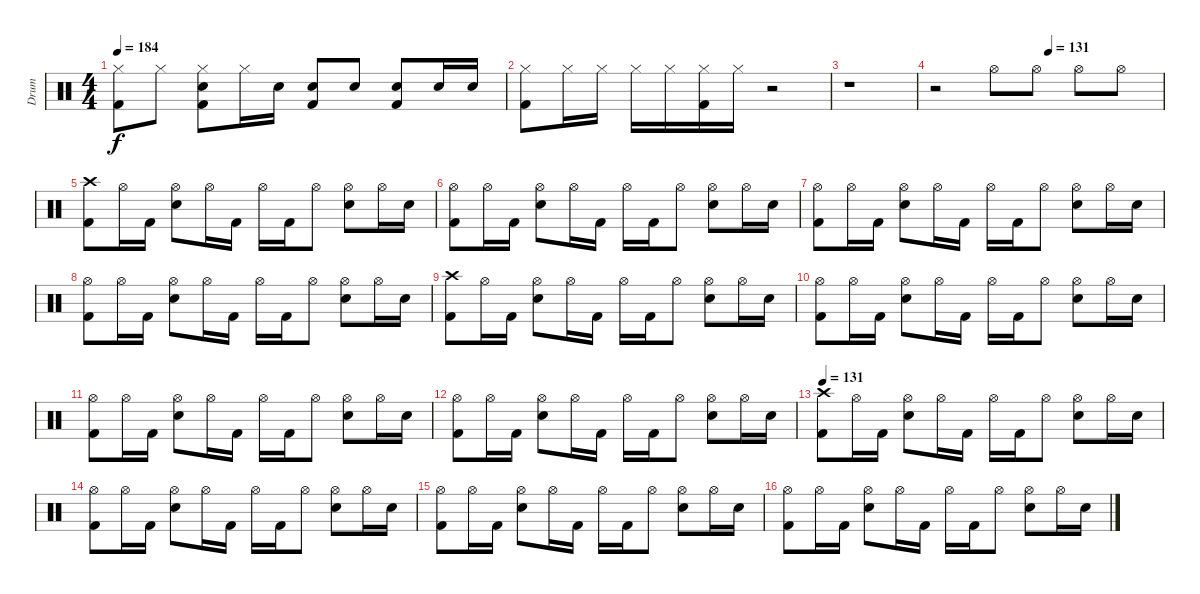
\track ("Drum" "Drum") {instrument percussion}
\staff {score}
\articulation defaults
\ts (4 4)
\tempo 184
\clef neutral
\ks c
("Hi-Hat (closed)" "Kick (hit) 2").8{dy f} "Hi-Hat (closed)".8 ("Hi-Hat (closed)" "Electric Snare (hit)" "Kick (hit) 2").8 "Hi-Hat (closed)".16 "Electric Snare (hit)".16 ("Electric Snare (hit)" "Kick (hit) 2").8 "Electric Snare (hit)".8 ("Electric Snare (hit)" "Kick (hit) 2").8 "Electric Snare (hit)".16 "Electric Snare (hit)".16 |
("Hi-Hat (closed)" "Kick (hit) 2").8 "Hi-Hat (closed)".16 "Hi-Hat (closed)".16 "Hi-Hat (closed)".16 "Hi-Hat (closed)".16 ("Hi-Hat (closed)" "Kick (hit) 2").16 "Hi-Hat (closed)".16 r.2 |
r.1 |
\tempo (131 0.5)
r.2 "Hi-Hat (open)".8 "Hi-Hat (open)".8 "Hi-Hat (open)".8 "Hi-Hat (open)".8 |
("Crash high (hit)" "Kick (hit) 2").8 "Hi-Hat (open)".16 "Kick (hit) 2".16 ("Hi-Hat (open)" "Snare (hit) 2").8 "Hi-Hat (open)".16 "Kick (hit) 2".16 "Hi-Hat (open)".16 "Kick (hit) 2".16 "Hi-Hat (open)".8 ("Hi-Hat (open)" "Snare (hit) 2").8 "Hi-Hat (open)".16 "Snare (hit) 2".16 |
("Hi-Hat (open)" "Kick (hit) 2").8 "Hi-Hat (open)".16 "Kick (hit) 2".16 ("Hi-Hat (open)" "Snare (hit) 2").8 "Hi-Hat (open)".16 "Kick (hit) 2".16 "Hi-Hat (open)".16 "Kick (hit) 2".16 "Hi-Hat (open)".8 ("Hi-Hat (open)" "Snare (hit) 2").8 "Hi-Hat (open)".16 "Snare (hit) 2".16 |
("Hi-Hat (open)" "Kick (hit) 2").8 "Hi-Hat (open)".16 "Kick (hit) 2".16 ("Hi-Hat (open)" "Snare (hit) 2").8 "Hi-Hat (open)".16 "Kick (hit) 2".16 "Hi-Hat (open)".16 "Kick (hit) 2".16 "Hi-Hat (open)".8 ("Hi-Hat (open)" "Snare (hit) 2").8 "Hi-Hat (open)".16 "Snare (hit) 2".16 |
("Hi-Hat (open)" "Kick (hit) 2").8 "Hi-Hat (open)".16 "Kick (hit) 2".16 ("Hi-Hat (open)" "Snare (hit) 2").8 "Hi-Hat (open)".16 "Kick (hit) 2".16 "Hi-Hat (open)".16 "Kick (hit) 2".16 "Hi-Hat (open)".8 ("Hi-Hat (open)" "Snare (hit) 2").8 "Hi-Hat (open)".16 "Snare (hit) 2".16 |
("Crash high (hit)" "Kick (hit) 2").8 "Hi-Hat (open)".16 "Kick (hit) 2".16 ("Hi-Hat (open)" "Snare (hit) 2").8 "Hi-Hat (open)".16 "Kick (hit) 2".16 "Hi-Hat (open)".16 "Kick (hit) 2".16 "Hi-Hat (open)".8 ("Hi-Hat (open)" "Snare (hit) 2").8 "Hi-Hat (open)".16 "Snare (hit) 2".16 |
("Hi-Hat (open)" "Kick (hit) 2").8 "Hi-Hat (open)".16 "Kick (hit) 2".16 ("Hi-Hat (open)" "Snare (hit) 2").8 "Hi-Hat (open)".16 "Kick (hit) 2".16 "Hi-Hat (open)".16 "Kick (hit) 2".16 "Hi-Hat (open)".8 ("Hi-Hat (open)" "Snare (hit) 2").8 "Hi-Hat (open)".16 "Snare (hit) 2".16 |
("Hi-Hat (open)" "Kick (hit) 2").8 "Hi-Hat (open)".16 "Kick (hit) 2".16 ("Hi-Hat (open)" "Snare (hit) 2").8 "Hi-Hat (open)".16 "Kick (hit) 2".16 "Hi-Hat (open)".16 "Kick (hit) 2".16 "Hi-Hat (open)".8 ("Hi-Hat (open)" "Snare (hit) 2").8 "Hi-Hat (open)".16 "Snare (hit) 2".16 |
("Hi-Hat (open)" "Kick (hit) 2").8 "Hi-Hat (open)".16 "Kick (hit) 2".16 ("Hi-Hat (open)" "Snare (hit) 2").8 "Hi-Hat (open)".16 "Kick (hit) 2".16 "Hi-Hat (open)".16 "Kick (hit) 2".16 "Hi-Hat (open)".8 ("Hi-Hat (open)" "Snare (hit) 2").8 "Hi-Hat (open)".16 "Snare (hit) 2".16 |
\tempo 131
("Crash high (hit)" "Kick (hit) 2").8{volume 15} "Hi-Hat (open)".16 "Kick (hit) 2".16 ("Hi-Hat (open)" "Snare (hit) 2").8 "Hi-Hat (open)".16 "Kick (hit) 2".16 "Hi-Hat (open)".16{volume 14} "Kick (hit) 2".16 "Hi-Hat (open)".8 ("Hi-Hat (open)" "Snare (hit) 2").8 "Hi-Hat (open)".16 "Snare (hit) 2".16 |
("Hi-Hat (open)" "Kick (hit) 2").8{volume 13} "Hi-Hat (open)".16 "Kick (hit) 2".16 ("Hi-Hat (open)" "Snare (hit) 2").8 "Hi-Hat (open)".16 "Kick (hit) 2".16{volume 12} "Hi-Hat (open)".16 "Kick (hit) 2".16 "Hi-Hat (open)".8 ("Hi-Hat (open)" "Snare (hit) 2").8 "Hi-Hat (open)".16 "Snare (hit) 2".16 |
("Hi-Hat (open)" "Kick (hit) 2").8{volume 11} "Hi-Hat (open)".16 "Kick (hit) 2".16 ("Hi-Hat (open)" "Snare (hit) 2").8 "Hi-Hat (open)".16 "Kick (hit) 2".16 "Hi-Hat (open)".16{volume 10} "Kick (hit) 2".16 "Hi-Hat (open)".8 ("Hi-Hat (open)" "Snare (hit) 2").8 "Hi-Hat (open)".16 "Snare (hit) 2".16 |
("Hi-Hat (open)" "Kick (hit) 2").8{volume 9} "Hi-Hat (open)".16 "Kick (hit) 2".16 ("Hi-Hat (open)" "Snare (hit) 2").8 "Hi-Hat (open)".16 "Kick (hit) 2".16 "Hi-Hat (open)".16{volume 8} "Kick (hit) 2".16 "Hi-Hat (open)".8 ("Hi-Hat (open)" "Snare (hit) 2").8 "Hi-Hat (open)".16 "Snare (hit) 2".16
